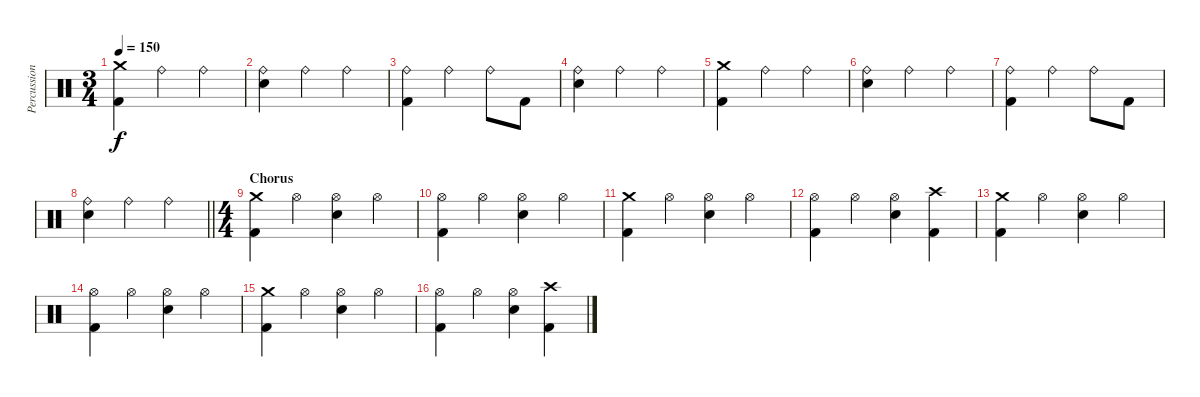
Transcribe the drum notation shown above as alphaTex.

\track ("Percussion" "Percussion") {instrument percussion}
\staff {score}
\articulation defaults
\ts (3 4)
\tempo 150
\clef neutral
\ks c
("Crash medium (hit)" "Kick (hit) 2").4{dy f} "Ride (bell)".4 "Ride (bell)".4 |
("Ride (bell)" "Electric Snare (hit)").4 "Ride (bell)".4 "Ride (bell)".4 |
("Ride (bell)" "Kick (hit) 2").4 "Ride (bell)".4 "Ride (bell)".8 "Kick (hit) 2".8 |
("Ride (bell)" "Electric Snare (hit)").4 "Ride (bell)".4 "Ride (bell)".4 |
("Crash medium (hit)" "Kick (hit) 2").4 "Ride (bell)".4 "Ride (bell)".4 |
("Ride (bell)" "Electric Snare (hit)").4 "Ride (bell)".4 "Ride (bell)".4 |
("Ride (bell)" "Kick (hit) 2").4 "Ride (bell)".4 "Ride (bell)".8 "Kick (hit) 2".8 |
\barLineRight lightlight
("Ride (bell)" "Electric Snare (hit)").4 "Ride (bell)".4 "Ride (bell)".4 |
\ts (4 4)
\section ("" "Chorus")
("Crash medium (hit)" "Kick (hit) 2").4 "Hi-Hat (open)".4 ("Hi-Hat (open)" "Electric Snare (hit)").4 "Hi-Hat (open)".4 |
("Hi-Hat (open)" "Kick (hit) 2").4 "Hi-Hat (open)".4 ("Hi-Hat (open)" "Electric Snare (hit)").4 "Hi-Hat (open)".4 |
("Crash medium (hit)" "Kick (hit) 2").4 "Hi-Hat (open)".4 ("Hi-Hat (open)" "Electric Snare (hit)").4 "Hi-Hat (open)".4 |
("Hi-Hat (open)" "Kick (hit) 2").4 "Hi-Hat (open)".4 ("Hi-Hat (open)" "Electric Snare (hit)").4 ("Crash high (hit)" "Kick (hit) 2").4 |
("Crash medium (hit)" "Kick (hit) 2").4 "Hi-Hat (open)".4 ("Hi-Hat (open)" "Electric Snare (hit)").4 "Hi-Hat (open)".4 |
("Hi-Hat (open)" "Kick (hit) 2").4 "Hi-Hat (open)".4 ("Hi-Hat (open)" "Electric Snare (hit)").4 "Hi-Hat (open)".4 |
("Crash medium (hit)" "Kick (hit) 2").4 "Hi-Hat (open)".4 ("Hi-Hat (open)" "Electric Snare (hit)").4 "Hi-Hat (open)".4 |
("Hi-Hat (open)" "Kick (hit) 2").4 "Hi-Hat (open)".4 ("Hi-Hat (open)" "Electric Snare (hit)").4 ("Crash high (hit)" "Kick (hit) 2").4
